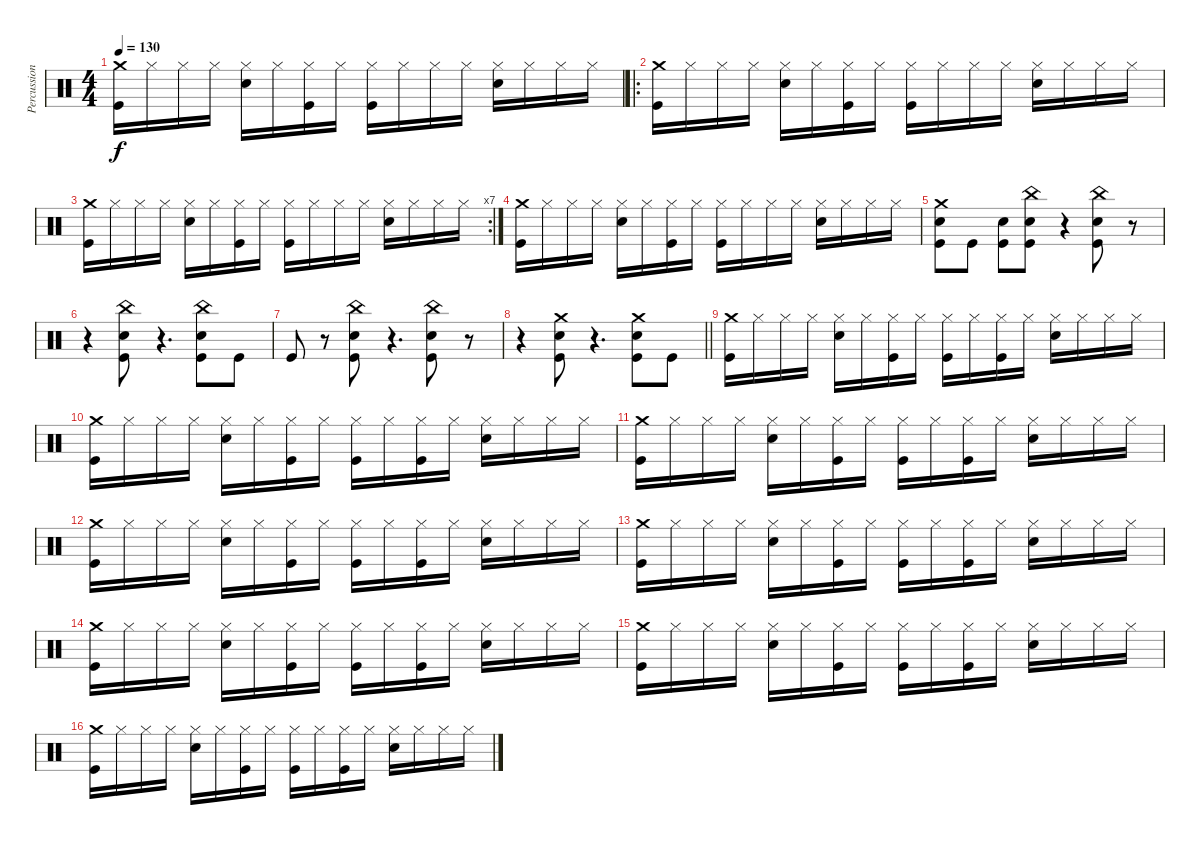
\track ("Percussion" "Percussion") {instrument percussion}
\staff {score}
\articulation defaults
\ts (4 4)
\tempo 130
\clef neutral
\ks c
("Crash medium (hit)" "Kick (hit)").16{dy f} "Hi-Hat (closed)".16 "Hi-Hat (closed)".16 "Hi-Hat (closed)".16 ("Hi-Hat (closed)" "Snare (hit) 2").16 "Hi-Hat (closed)".16 ("Hi-Hat (closed)" "Kick (hit)").16 "Hi-Hat (closed)".16 ("Hi-Hat (closed)" "Kick (hit)").16 "Hi-Hat (closed)".16 "Hi-Hat (closed)".16 "Hi-Hat (closed)".16 ("Hi-Hat (closed)" "Snare (hit) 2").16 "Hi-Hat (closed)".16 "Hi-Hat (closed)".16 "Hi-Hat (closed)".16 |
\ro
("Crash medium (hit)" "Kick (hit)").16 "Hi-Hat (closed)".16 "Hi-Hat (closed)".16 "Hi-Hat (closed)".16 ("Hi-Hat (closed)" "Snare (hit) 2").16 "Hi-Hat (closed)".16 ("Hi-Hat (closed)" "Kick (hit)").16 "Hi-Hat (closed)".16 ("Hi-Hat (closed)" "Kick (hit)").16 "Hi-Hat (closed)".16 "Hi-Hat (closed)".16 "Hi-Hat (closed)".16 ("Hi-Hat (closed)" "Snare (hit) 2").16 "Hi-Hat (closed)".16 "Hi-Hat (closed)".16 "Hi-Hat (closed)".16 |
\rc 7
("Crash medium (hit)" "Kick (hit)").16 "Hi-Hat (closed)".16 "Hi-Hat (closed)".16 "Hi-Hat (closed)".16 ("Hi-Hat (closed)" "Snare (hit) 2").16 "Hi-Hat (closed)".16 ("Hi-Hat (closed)" "Kick (hit)").16 "Hi-Hat (closed)".16 ("Hi-Hat (closed)" "Kick (hit)").16 "Hi-Hat (closed)".16 "Hi-Hat (closed)".16 "Hi-Hat (closed)".16 ("Hi-Hat (closed)" "Snare (hit) 2").16 "Hi-Hat (closed)".16 "Hi-Hat (closed)".16 "Hi-Hat (closed)".16 |
("Crash medium (hit)" "Kick (hit)").16 "Hi-Hat (closed)".16 "Hi-Hat (closed)".16 "Hi-Hat (closed)".16 ("Hi-Hat (closed)" "Snare (hit) 2").16 "Hi-Hat (closed)".16 ("Hi-Hat (closed)" "Kick (hit)").16 "Hi-Hat (closed)".16 ("Hi-Hat (closed)" "Kick (hit)").16 "Hi-Hat (closed)".16 "Hi-Hat (closed)".16 "Hi-Hat (closed)".16 ("Hi-Hat (closed)" "Snare (hit) 2").16 "Hi-Hat (closed)".16 "Hi-Hat (closed)".16 "Hi-Hat (closed)".16 |
("Crash medium (hit)" "Snare (hit) 2" "Kick (hit)").8 "Kick (hit)".8 ("Snare (hit) 2" "Kick (hit)").8 ("China (hit)" "Kick (hit)" "Snare (hit) 2").8 r.4 ("China (hit)" "Kick (hit)" "Snare (hit) 2").8 r.8 |
r.4 ("China (hit)" "Kick (hit)" "Snare (hit) 2").8 r.4{d} ("China (hit)" "Kick (hit)" "Snare (hit) 2").8 "Kick (hit)".8 |
"Kick (hit)".8 r.8 ("China (hit)" "Kick (hit)" "Snare (hit) 2").8 r.4{d} ("China (hit)" "Kick (hit)" "Snare (hit) 2").8 r.8 |
\barLineRight lightlight
r.4 ("Crash medium (hit)" "Kick (hit)" "Snare (hit) 2").8 r.4{d} ("Crash medium (hit)" "Kick (hit)" "Snare (hit) 2").8 "Kick (hit)".8 |
("Crash medium (hit)" "Kick (hit)").16 "Hi-Hat (closed)".16 "Hi-Hat (closed)".16 "Hi-Hat (closed)".16 ("Hi-Hat (closed)" "Snare (hit) 2").16 "Hi-Hat (closed)".16 ("Hi-Hat (closed)" "Kick (hit)").16 "Hi-Hat (closed)".16 ("Hi-Hat (closed)" "Kick (hit)").16 "Hi-Hat (closed)".16 ("Hi-Hat (closed)" "Kick (hit)").16 "Hi-Hat (closed)".16 ("Hi-Hat (closed)" "Snare (hit) 2").16 "Hi-Hat (closed)".16 "Hi-Hat (closed)".16 "Hi-Hat (closed)".16 |
("Crash medium (hit)" "Kick (hit)").16 "Hi-Hat (closed)".16 "Hi-Hat (closed)".16 "Hi-Hat (closed)".16 ("Hi-Hat (closed)" "Snare (hit) 2").16 "Hi-Hat (closed)".16 ("Hi-Hat (closed)" "Kick (hit)").16 "Hi-Hat (closed)".16 ("Hi-Hat (closed)" "Kick (hit)").16 "Hi-Hat (closed)".16 ("Hi-Hat (closed)" "Kick (hit)").16 "Hi-Hat (closed)".16 ("Hi-Hat (closed)" "Snare (hit) 2").16 "Hi-Hat (closed)".16 "Hi-Hat (closed)".16 "Hi-Hat (closed)".16 |
("Crash medium (hit)" "Kick (hit)").16 "Hi-Hat (closed)".16 "Hi-Hat (closed)".16 "Hi-Hat (closed)".16 ("Hi-Hat (closed)" "Snare (hit) 2").16 "Hi-Hat (closed)".16 ("Hi-Hat (closed)" "Kick (hit)").16 "Hi-Hat (closed)".16 ("Hi-Hat (closed)" "Kick (hit)").16 "Hi-Hat (closed)".16 ("Hi-Hat (closed)" "Kick (hit)").16 "Hi-Hat (closed)".16 ("Hi-Hat (closed)" "Snare (hit) 2").16 "Hi-Hat (closed)".16 "Hi-Hat (closed)".16 "Hi-Hat (closed)".16 |
("Crash medium (hit)" "Kick (hit)").16 "Hi-Hat (closed)".16 "Hi-Hat (closed)".16 "Hi-Hat (closed)".16 ("Hi-Hat (closed)" "Snare (hit) 2").16 "Hi-Hat (closed)".16 ("Hi-Hat (closed)" "Kick (hit)").16 "Hi-Hat (closed)".16 ("Hi-Hat (closed)" "Kick (hit)").16 "Hi-Hat (closed)".16 ("Hi-Hat (closed)" "Kick (hit)").16 "Hi-Hat (closed)".16 ("Hi-Hat (closed)" "Snare (hit) 2").16 "Hi-Hat (closed)".16 "Hi-Hat (closed)".16 "Hi-Hat (closed)".16 |
("Crash medium (hit)" "Kick (hit)").16 "Hi-Hat (closed)".16 "Hi-Hat (closed)".16 "Hi-Hat (closed)".16 ("Hi-Hat (closed)" "Snare (hit) 2").16 "Hi-Hat (closed)".16 ("Hi-Hat (closed)" "Kick (hit)").16 "Hi-Hat (closed)".16 ("Hi-Hat (closed)" "Kick (hit)").16 "Hi-Hat (closed)".16 ("Hi-Hat (closed)" "Kick (hit)").16 "Hi-Hat (closed)".16 ("Hi-Hat (closed)" "Snare (hit) 2").16 "Hi-Hat (closed)".16 "Hi-Hat (closed)".16 "Hi-Hat (closed)".16 |
("Crash medium (hit)" "Kick (hit)").16 "Hi-Hat (closed)".16 "Hi-Hat (closed)".16 "Hi-Hat (closed)".16 ("Hi-Hat (closed)" "Snare (hit) 2").16 "Hi-Hat (closed)".16 ("Hi-Hat (closed)" "Kick (hit)").16 "Hi-Hat (closed)".16 ("Hi-Hat (closed)" "Kick (hit)").16 "Hi-Hat (closed)".16 ("Hi-Hat (closed)" "Kick (hit)").16 "Hi-Hat (closed)".16 ("Hi-Hat (closed)" "Snare (hit) 2").16 "Hi-Hat (closed)".16 "Hi-Hat (closed)".16 "Hi-Hat (closed)".16 |
("Crash medium (hit)" "Kick (hit)").16 "Hi-Hat (closed)".16 "Hi-Hat (closed)".16 "Hi-Hat (closed)".16 ("Hi-Hat (closed)" "Snare (hit) 2").16 "Hi-Hat (closed)".16 ("Hi-Hat (closed)" "Kick (hit)").16 "Hi-Hat (closed)".16 ("Hi-Hat (closed)" "Kick (hit)").16 "Hi-Hat (closed)".16 ("Hi-Hat (closed)" "Kick (hit)").16 "Hi-Hat (closed)".16 ("Hi-Hat (closed)" "Snare (hit) 2").16 "Hi-Hat (closed)".16 "Hi-Hat (closed)".16 "Hi-Hat (closed)".16 |
("Crash medium (hit)" "Kick (hit)").16 "Hi-Hat (closed)".16 "Hi-Hat (closed)".16 "Hi-Hat (closed)".16 ("Hi-Hat (closed)" "Snare (hit) 2").16 "Hi-Hat (closed)".16 ("Hi-Hat (closed)" "Kick (hit)").16 "Hi-Hat (closed)".16 ("Hi-Hat (closed)" "Kick (hit)").16 "Hi-Hat (closed)".16 ("Hi-Hat (closed)" "Kick (hit)").16 "Hi-Hat (closed)".16 ("Hi-Hat (closed)" "Snare (hit) 2").16 "Hi-Hat (closed)".16 "Hi-Hat (closed)".16 "Hi-Hat (closed)".16
